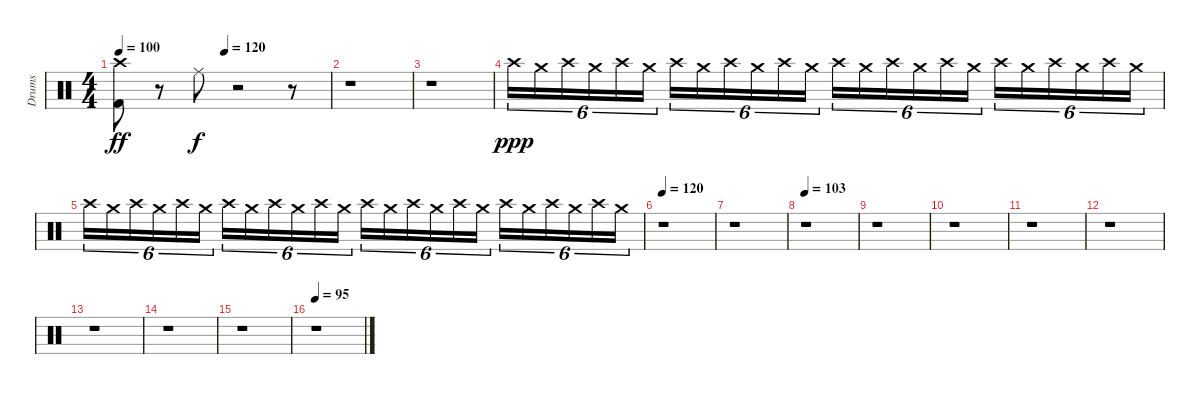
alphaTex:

\track ("Drums" "Drums") {instrument percussion}
\staff {score}
\articulation defaults
\ts (4 4)
\tempo 100
\tempo (120 0.5)
\clef neutral
\ks c
("Kick (hit) 2" "Crash high (hit)").8{dy ff} r.8 "Ride (middle)".8{dy f} r.2 r.8 |
r.1 |
r.1 |
"Crash high (hit)".16{tu (6 4) dy ppp} "Crash medium (hit)".16{tu (6 4)} "Crash high (hit)".16{tu (6 4)} "Crash medium (hit)".16{tu (6 4)} "Crash high (hit)".16{tu (6 4)} "Crash medium (hit)".16{tu (6 4)} "Crash high (hit)".16{tu (6 4)} "Crash medium (hit)".16{tu (6 4)} "Crash high (hit)".16{tu (6 4)} "Crash medium (hit)".16{tu (6 4)} "Crash high (hit)".16{tu (6 4)} "Crash medium (hit)".16{tu (6 4)} "Crash high (hit)".16{tu (6 4)} "Crash medium (hit)".16{tu (6 4)} "Crash high (hit)".16{tu (6 4)} "Crash medium (hit)".16{tu (6 4)} "Crash high (hit)".16{tu (6 4)} "Crash medium (hit)".16{tu (6 4)} "Crash high (hit)".16{tu (6 4)} "Crash medium (hit)".16{tu (6 4)} "Crash high (hit)".16{tu (6 4)} "Crash medium (hit)".16{tu (6 4)} "Crash high (hit)".16{tu (6 4)} "Crash medium (hit)".16{tu (6 4)} |
"Crash high (hit)".16{tu (6 4)} "Crash medium (hit)".16{tu (6 4)} "Crash high (hit)".16{tu (6 4)} "Crash medium (hit)".16{tu (6 4)} "Crash high (hit)".16{tu (6 4)} "Crash medium (hit)".16{tu (6 4)} "Crash high (hit)".16{tu (6 4)} "Crash medium (hit)".16{tu (6 4)} "Crash high (hit)".16{tu (6 4)} "Crash medium (hit)".16{tu (6 4)} "Crash high (hit)".16{tu (6 4)} "Crash medium (hit)".16{tu (6 4)} "Crash high (hit)".16{tu (6 4)} "Crash medium (hit)".16{tu (6 4)} "Crash high (hit)".16{tu (6 4)} "Crash medium (hit)".16{tu (6 4)} "Crash high (hit)".16{tu (6 4)} "Crash medium (hit)".16{tu (6 4)} "Crash high (hit)".16{tu (6 4)} "Crash medium (hit)".16{tu (6 4)} "Crash high (hit)".16{tu (6 4)} "Crash medium (hit)".16{tu (6 4)} "Crash high (hit)".16{tu (6 4)} "Crash medium (hit)".16{tu (6 4)} |
\tempo 120
r.1 |
r.1 |
\tempo 103
r.1 |
r.1 |
r.1 |
r.1 |
r.1 |
r.1 |
r.1 |
r.1 |
\tempo 95
r.1
